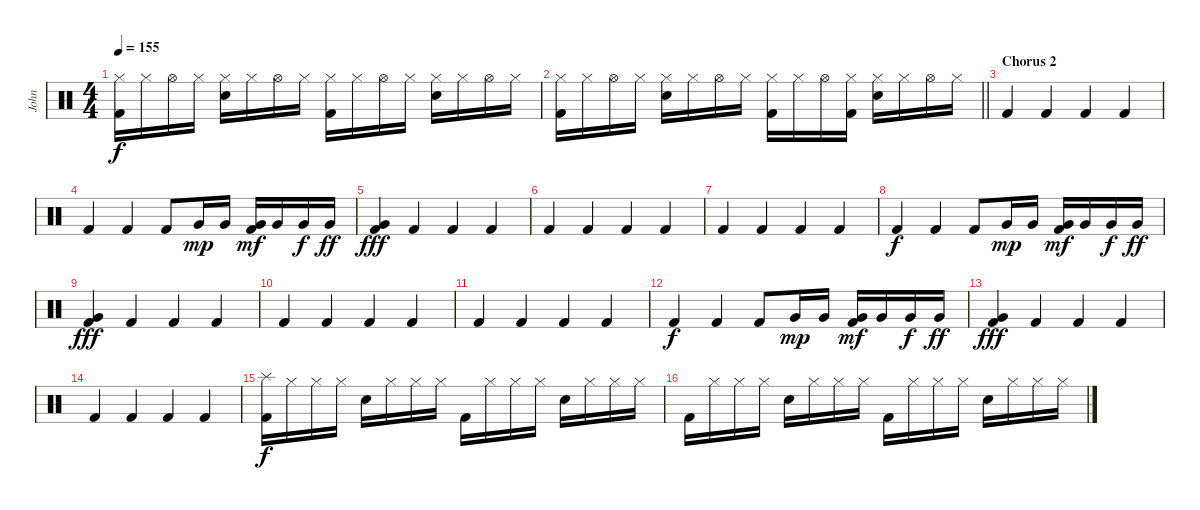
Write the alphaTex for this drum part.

\track ("John" "John") {instrument percussion}
\staff {score}
\articulation defaults
\ts (4 4)
\tempo 155
\clef neutral
\ks c
("Hi-Hat (closed)" "Kick (hit) 2").16{dy f} "Hi-Hat (closed)".16 "Hi-Hat (open)".16 "Hi-Hat (closed)".16 ("Hi-Hat (closed)" "Snare (hit) 2").16 "Hi-Hat (closed)".16 "Hi-Hat (open)".16 "Hi-Hat (closed)".16 ("Hi-Hat (closed)" "Kick (hit) 2").16 "Hi-Hat (closed)".16 "Hi-Hat (open)".16 "Hi-Hat (closed)".16 ("Hi-Hat (closed)" "Snare (hit) 2").16 "Hi-Hat (closed)".16 "Hi-Hat (open)".16 "Hi-Hat (closed)".16 |
\barLineRight lightlight
("Hi-Hat (closed)" "Kick (hit) 2").16 "Hi-Hat (closed)".16 "Hi-Hat (open)".16 "Hi-Hat (closed)".16 ("Hi-Hat (closed)" "Snare (hit) 2").16 "Hi-Hat (closed)".16 "Hi-Hat (open)".16 "Hi-Hat (closed)".16 ("Hi-Hat (closed)" "Kick (hit) 2").16 "Hi-Hat (closed)".16 "Hi-Hat (open)".16 ("Hi-Hat (closed)" "Kick (hit) 2").16 ("Hi-Hat (closed)" "Snare (hit) 2").16 "Hi-Hat (closed)".16 "Hi-Hat (open)".16 "Hi-Hat (closed)".16 |
\section ("" "Chorus 2")
"Kick (hit) 2".4 "Kick (hit) 2".4 "Kick (hit) 2".4 "Kick (hit) 2".4 |
"Kick (hit) 2".4 "Kick (hit) 2".4 "Kick (hit) 2".8 "Very Low Tom (hit)".16{dy mp} "Very Low Tom (hit)".16 ("Very Low Tom (hit)" "Kick (hit) 2").16{dy mf} "Very Low Tom (hit)".16 "Very Low Tom (hit)".16{dy f} "Very Low Tom (hit)".16{dy ff} |
("Very Low Tom (hit)" "Kick (hit) 2").4{dy fff} "Kick (hit) 2".4 "Kick (hit) 2".4 "Kick (hit) 2".4 |
"Kick (hit) 2".4 "Kick (hit) 2".4 "Kick (hit) 2".4 "Kick (hit) 2".4 |
"Kick (hit) 2".4 "Kick (hit) 2".4 "Kick (hit) 2".4 "Kick (hit) 2".4 |
"Kick (hit) 2".4{dy f} "Kick (hit) 2".4 "Kick (hit) 2".8 "Very Low Tom (hit)".16{dy mp} "Very Low Tom (hit)".16 ("Very Low Tom (hit)" "Kick (hit) 2").16{dy mf} "Very Low Tom (hit)".16 "Very Low Tom (hit)".16{dy f} "Very Low Tom (hit)".16{dy ff} |
("Very Low Tom (hit)" "Kick (hit) 2").4{dy fff} "Kick (hit) 2".4 "Kick (hit) 2".4 "Kick (hit) 2".4 |
"Kick (hit) 2".4 "Kick (hit) 2".4 "Kick (hit) 2".4 "Kick (hit) 2".4 |
"Kick (hit) 2".4 "Kick (hit) 2".4 "Kick (hit) 2".4 "Kick (hit) 2".4 |
"Kick (hit) 2".4{dy f} "Kick (hit) 2".4 "Kick (hit) 2".8 "Very Low Tom (hit)".16{dy mp} "Very Low Tom (hit)".16 ("Very Low Tom (hit)" "Kick (hit) 2").16{dy mf} "Very Low Tom (hit)".16 "Very Low Tom (hit)".16{dy f} "Very Low Tom (hit)".16{dy ff} |
("Very Low Tom (hit)" "Kick (hit) 2").4{dy fff} "Kick (hit) 2".4 "Kick (hit) 2".4 "Kick (hit) 2".4 |
"Kick (hit) 2".4 "Kick (hit) 2".4 "Kick (hit) 2".4 "Kick (hit) 2".4 |
("Splash (hit)" "Kick (hit) 2").16{dy f} "Hi-Hat (closed)".16 "Hi-Hat (closed)".16 "Hi-Hat (closed)".16 "Snare (hit) 2".16 "Hi-Hat (closed)".16 "Hi-Hat (closed)".16 "Hi-Hat (closed)".16 "Kick (hit) 2".16 "Hi-Hat (closed)".16 "Hi-Hat (closed)".16 "Hi-Hat (closed)".16 "Snare (hit) 2".16 "Hi-Hat (closed)".16 "Hi-Hat (closed)".16 "Hi-Hat (closed)".16 |
"Kick (hit) 2".16 "Hi-Hat (closed)".16 "Hi-Hat (closed)".16 "Hi-Hat (closed)".16 "Snare (hit) 2".16 "Hi-Hat (closed)".16 "Hi-Hat (closed)".16 "Hi-Hat (closed)".16 "Kick (hit) 2".16 "Hi-Hat (closed)".16 "Hi-Hat (closed)".16 "Hi-Hat (closed)".16 "Snare (hit) 2".16 "Hi-Hat (closed)".16 "Hi-Hat (closed)".16 "Hi-Hat (closed)".16
